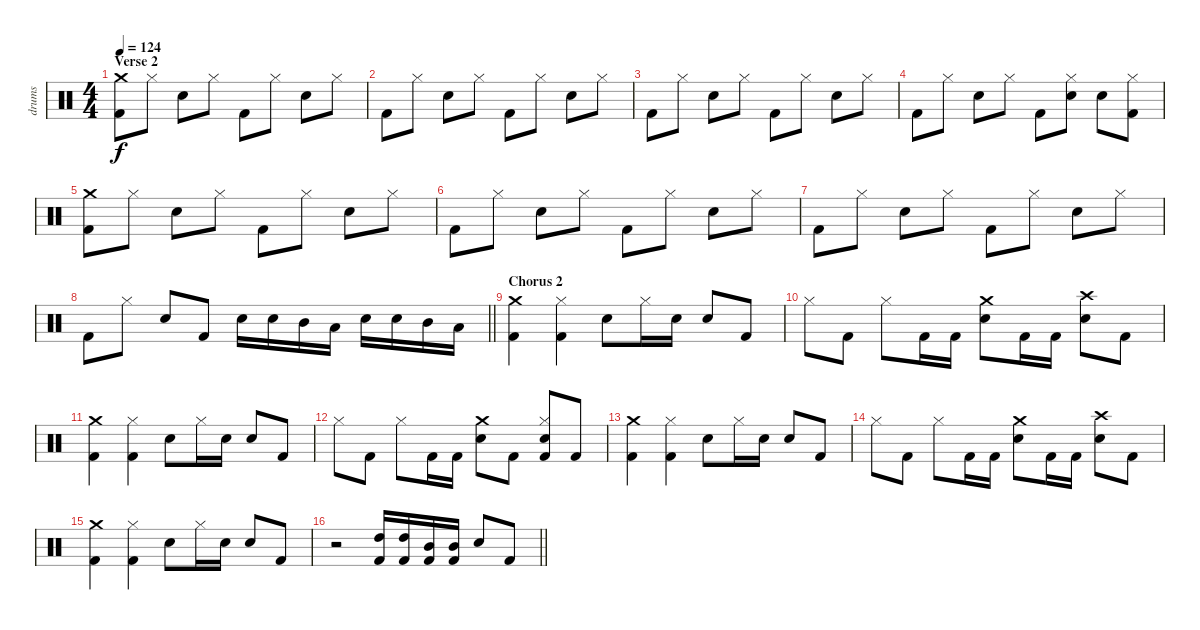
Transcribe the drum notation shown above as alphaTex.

\track ("drums" "drums") {instrument percussion}
\staff {score}
\articulation defaults
\ts (4 4)
\section ("" "Verse 2")
\tempo 124
\clef neutral
\ks c
("Crash medium (hit)" "Kick (hit) 2").8{dy f} "Hi-Hat (closed)".8 "Snare (hit) 2".8 "Hi-Hat (closed)".8 "Kick (hit) 2".8 "Hi-Hat (closed)".8 "Snare (hit) 2".8 "Hi-Hat (closed)".8 |
"Kick (hit) 2".8 "Hi-Hat (closed)".8 "Snare (hit) 2".8 "Hi-Hat (closed)".8 "Kick (hit) 2".8 "Hi-Hat (closed)".8 "Snare (hit) 2".8 "Hi-Hat (closed)".8 |
"Kick (hit) 2".8 "Hi-Hat (closed)".8 "Snare (hit) 2".8 "Hi-Hat (closed)".8 "Kick (hit) 2".8 "Hi-Hat (closed)".8 "Snare (hit) 2".8 "Hi-Hat (closed)".8 |
"Kick (hit) 2".8 "Hi-Hat (closed)".8 "Snare (hit) 2".8 "Hi-Hat (closed)".8 "Kick (hit) 2".8 ("Hi-Hat (closed)" "Snare (hit) 2").8 "Snare (hit) 2".8 ("Hi-Hat (closed)" "Kick (hit) 2").8 |
("Crash medium (hit)" "Kick (hit) 2").8 "Hi-Hat (closed)".8 "Snare (hit) 2".8 "Hi-Hat (closed)".8 "Kick (hit) 2".8 "Hi-Hat (closed)".8 "Snare (hit) 2".8 "Hi-Hat (closed)".8 |
"Kick (hit) 2".8 "Hi-Hat (closed)".8 "Snare (hit) 2".8 "Hi-Hat (closed)".8 "Kick (hit) 2".8 "Hi-Hat (closed)".8 "Snare (hit) 2".8 "Hi-Hat (closed)".8 |
"Kick (hit) 2".8 "Hi-Hat (closed)".8 "Snare (hit) 2".8 "Hi-Hat (closed)".8 "Kick (hit) 2".8 "Hi-Hat (closed)".8 "Snare (hit) 2".8 "Hi-Hat (closed)".8 |
\barLineRight lightlight "Kick (hit) 2".8 "Hi-Hat (closed)".8 "Snare (hit) 2".8 "Kick (hit) 2".8 "Snare (hit) 2".16 "Snare (hit) 2".16 "Mid Tom (hit)".16 "Low Tom (hit)".16 "Snare (hit) 2".16 "Snare (hit) 2".16 "Mid Tom (hit)".16 "Low Tom (hit)".16
|
\section ("" "Chorus 2")
("Crash medium (hit)" "Kick (hit) 2").4 ("Hi-Hat (closed)" "Kick (hit) 2").4 "Snare (hit) 2".8 "Hi-Hat (closed)".16 "Snare (hit) 2".16 "Snare (hit) 2".8 "Kick (hit) 2".8 |
"Hi-Hat (closed)".8 "Kick (hit) 2".8 "Hi-Hat (closed)".8 "Kick (hit) 2".16 "Kick (hit) 2".16 ("Crash medium (hit)" "Snare (hit) 2").8 "Kick (hit) 2".16 "Kick (hit) 2".16 ("Crash high (hit)" "Snare (hit) 2").8 "Kick (hit) 2".8 |
("Crash medium (hit)" "Kick (hit) 2").4 ("Hi-Hat (closed)" "Kick (hit) 2").4 "Snare (hit) 2".8 "Hi-Hat (closed)".16 "Snare (hit) 2".16 "Snare (hit) 2".8 "Kick (hit) 2".8 |
"Hi-Hat (closed)".8 "Kick (hit) 2".8 "Hi-Hat (closed)".8 "Kick (hit) 2".16 "Kick (hit) 2".16 ("Crash medium (hit)" "Snare (hit) 2").8 "Kick (hit) 2".8 ("Hi-Hat (closed)" "Snare (hit) 2" "Kick (hit) 2").8 "Kick (hit) 2".8 |
("Crash medium (hit)" "Kick (hit) 2").4 ("Hi-Hat (closed)" "Kick (hit) 2").4 "Snare (hit) 2".8 "Hi-Hat (closed)".16 "Snare (hit) 2".16 "Snare (hit) 2".8 "Kick (hit) 2".8 |
"Hi-Hat (closed)".8 "Kick (hit) 2".8 "Hi-Hat (closed)".8 "Kick (hit) 2".16 "Kick (hit) 2".16 ("Crash medium (hit)" "Snare (hit) 2").8 "Kick (hit) 2".16 "Kick (hit) 2".16 ("Crash high (hit)" "Snare (hit) 2").8 "Kick (hit) 2".8 |
("Crash medium (hit)" "Kick (hit) 2").4 ("Hi-Hat (closed)" "Kick (hit) 2").4 "Snare (hit) 2".8 "Hi-Hat (closed)".16 "Snare (hit) 2".16 "Snare (hit) 2".8 "Kick (hit) 2".8 |
\barLineRight lightlight
r.2 ("High Tom (hit)" "Kick (hit) 2").16 ("High Tom (hit)" "Kick (hit) 2").16 ("Mid Tom (hit)" "Kick (hit) 2").16 ("Mid Tom (hit)" "Kick (hit) 2").16 "Snare (hit) 2".8 "Kick (hit) 2".8
